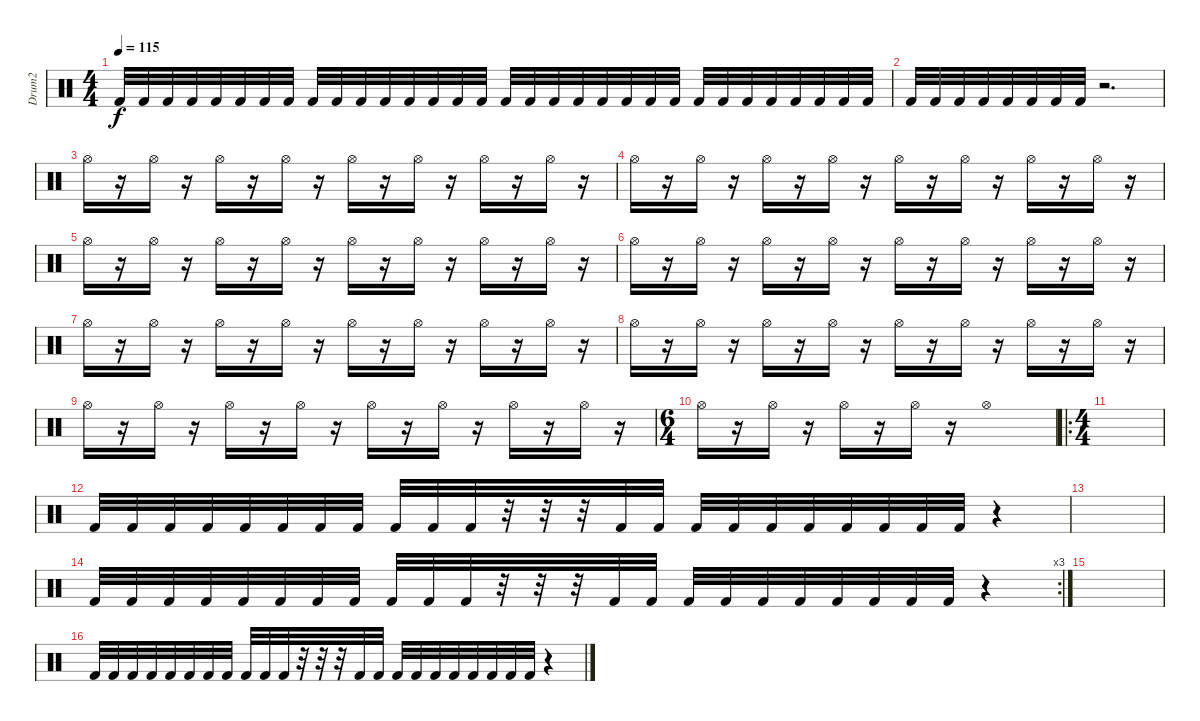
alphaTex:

\track ("Drum2" "Drum2") {instrument percussion}
\staff {score}
\articulation defaults
\ts (4 4)
\tempo 115
\clef neutral
\ks c "Kick (hit) 2".32{dy f} "Kick (hit) 2".32 "Kick (hit) 2".32 "Kick (hit) 2".32 "Kick (hit) 2".32 "Kick (hit) 2".32 "Kick (hit) 2".32 "Kick (hit) 2".32 "Kick (hit) 2".32 "Kick (hit) 2".32 "Kick (hit) 2".32 "Kick (hit) 2".32 "Kick (hit) 2".32 "Kick (hit) 2".32 "Kick (hit) 2".32 "Kick (hit) 2".32 "Kick (hit) 2".32 "Kick (hit) 2".32 "Kick (hit) 2".32 "Kick (hit) 2".32 "Kick (hit) 2".32 "Kick (hit) 2".32 "Kick (hit) 2".32 "Kick (hit) 2".32 "Kick (hit) 2".32 "Kick (hit) 2".32 "Kick (hit) 2".32 "Kick (hit) 2".32 "Kick (hit) 2".32 "Kick (hit) 2".32 "Kick (hit) 2".32 "Kick (hit) 2".32
|
"Kick (hit) 2".32 "Kick (hit) 2".32 "Kick (hit) 2".32 "Kick (hit) 2".32 "Kick (hit) 2".32 "Kick (hit) 2".32 "Kick (hit) 2".32 "Kick (hit) 2".32 r.2{d} |
"Hi-Hat (open)".16 r.16 "Hi-Hat (open)".16 r.16 "Hi-Hat (open)".16 r.16 "Hi-Hat (open)".16 r.16 "Hi-Hat (open)".16 r.16 "Hi-Hat (open)".16 r.16 "Hi-Hat (open)".16 r.16 "Hi-Hat (open)".16 r.16 |
"Hi-Hat (open)".16 r.16 "Hi-Hat (open)".16 r.16 "Hi-Hat (open)".16 r.16 "Hi-Hat (open)".16 r.16 "Hi-Hat (open)".16 r.16 "Hi-Hat (open)".16 r.16 "Hi-Hat (open)".16 r.16 "Hi-Hat (open)".16 r.16 |
"Hi-Hat (open)".16 r.16 "Hi-Hat (open)".16 r.16 "Hi-Hat (open)".16 r.16 "Hi-Hat (open)".16 r.16 "Hi-Hat (open)".16 r.16 "Hi-Hat (open)".16 r.16 "Hi-Hat (open)".16 r.16 "Hi-Hat (open)".16 r.16 |
"Hi-Hat (open)".16 r.16 "Hi-Hat (open)".16 r.16 "Hi-Hat (open)".16 r.16 "Hi-Hat (open)".16 r.16 "Hi-Hat (open)".16 r.16 "Hi-Hat (open)".16 r.16 "Hi-Hat (open)".16 r.16 "Hi-Hat (open)".16 r.16 |
"Hi-Hat (open)".16 r.16 "Hi-Hat (open)".16 r.16 "Hi-Hat (open)".16 r.16 "Hi-Hat (open)".16 r.16 "Hi-Hat (open)".16 r.16 "Hi-Hat (open)".16 r.16 "Hi-Hat (open)".16 r.16 "Hi-Hat (open)".16 r.16 |
"Hi-Hat (open)".16 r.16 "Hi-Hat (open)".16 r.16 "Hi-Hat (open)".16 r.16 "Hi-Hat (open)".16 r.16 "Hi-Hat (open)".16 r.16 "Hi-Hat (open)".16 r.16 "Hi-Hat (open)".16 r.16 "Hi-Hat (open)".16 r.16 |
"Hi-Hat (open)".16 r.16 "Hi-Hat (open)".16 r.16 "Hi-Hat (open)".16 r.16 "Hi-Hat (open)".16 r.16 "Hi-Hat (open)".16 r.16 "Hi-Hat (open)".16 r.16 "Hi-Hat (open)".16 r.16 "Hi-Hat (open)".16 r.16 |
\ts (6 4)
"Hi-Hat (open)".16 r.16 "Hi-Hat (open)".16 r.16 "Hi-Hat (open)".16 r.16 "Hi-Hat (open)".16 r.16 "Hi-Hat (open)".1 |
\ro
\ts (4 4)
|
"Kick (hit) 2".32 "Kick (hit) 2".32 "Kick (hit) 2".32 "Kick (hit) 2".32 "Kick (hit) 2".32 "Kick (hit) 2".32 "Kick (hit) 2".32 "Kick (hit) 2".32 "Kick (hit) 2".32 "Kick (hit) 2".32 "Kick (hit) 2".32 r.32 r.32 r.32 "Kick (hit) 2".32 "Kick (hit) 2".32 "Kick (hit) 2".32 "Kick (hit) 2".32 "Kick (hit) 2".32 "Kick (hit) 2".32 "Kick (hit) 2".32 "Kick (hit) 2".32 "Kick (hit) 2".32 "Kick (hit) 2".32 r.4 |
|
\rc 3 "Kick (hit) 2".32 "Kick (hit) 2".32 "Kick (hit) 2".32 "Kick (hit) 2".32 "Kick (hit) 2".32 "Kick (hit) 2".32 "Kick (hit) 2".32 "Kick (hit) 2".32 "Kick (hit) 2".32 "Kick (hit) 2".32 "Kick (hit) 2".32
r.32 r.32 r.32 "Kick (hit) 2".32 "Kick (hit) 2".32 "Kick (hit) 2".32 "Kick (hit) 2".32 "Kick (hit) 2".32 "Kick (hit) 2".32 "Kick (hit) 2".32 "Kick (hit) 2".32 "Kick (hit) 2".32 "Kick (hit) 2".32 r.4 |
|
"Kick (hit) 2".32 "Kick (hit) 2".32 "Kick (hit) 2".32 "Kick (hit) 2".32 "Kick (hit) 2".32 "Kick (hit) 2".32 "Kick (hit) 2".32 "Kick (hit) 2".32 "Kick (hit) 2".32 "Kick (hit) 2".32 "Kick (hit) 2".32 r.32 r.32 r.32 "Kick (hit) 2".32 "Kick (hit) 2".32 "Kick (hit) 2".32 "Kick (hit) 2".32 "Kick (hit) 2".32 "Kick (hit) 2".32 "Kick (hit) 2".32 "Kick (hit) 2".32 "Kick (hit) 2".32 "Kick (hit) 2".32 r.4
